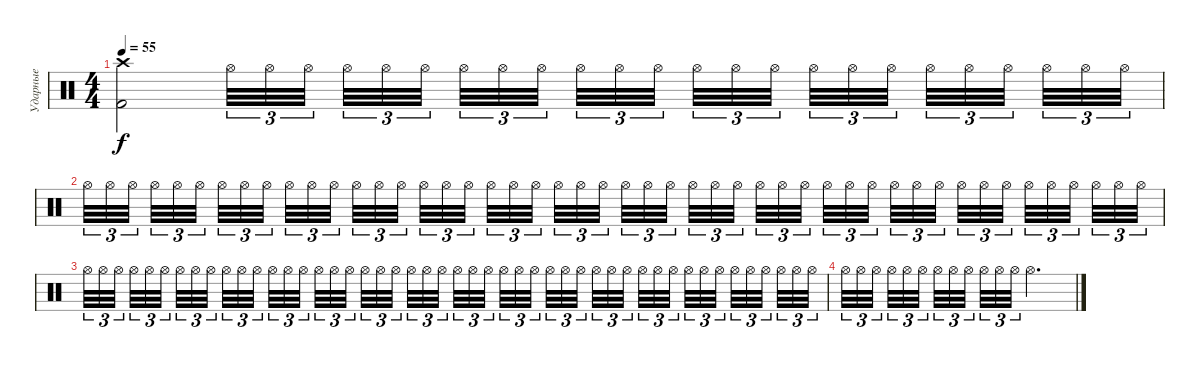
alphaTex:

\track ("Ударные" "Ударные") {instrument percussion}
\staff
\articulation defaults
\ts (4 4)
\tempo 55
\clef neutral
\ks c
("Kick (hit) 2" "Crash high (hit)").2{dy f} "Hi-Hat (open)".32{tu (3 2) volume 2} "Hi-Hat (open)".32{tu (3 2) volume 12} "Hi-Hat (open)".32{tu (3 2) beam splitsecondary} "Hi-Hat (open)".32{tu (3 2)} "Hi-Hat (open)".32{tu (3 2)} "Hi-Hat (open)".32{tu (3 2) beam splitsecondary} "Hi-Hat (open)".32{tu (3 2)} "Hi-Hat (open)".32{tu (3 2)} "Hi-Hat (open)".32{tu (3 2) beam splitsecondary} "Hi-Hat (open)".32{tu (3 2)} "Hi-Hat (open)".32{tu (3 2)} "Hi-Hat (open)".32{tu (3 2)} "Hi-Hat (open)".32{tu (3 2)} "Hi-Hat (open)".32{tu (3 2)} "Hi-Hat (open)".32{tu (3 2) beam splitsecondary} "Hi-Hat (open)".32{tu (3 2)} "Hi-Hat (open)".32{tu (3 2)} "Hi-Hat (open)".32{tu (3 2) beam splitsecondary} "Hi-Hat (open)".32{tu (3 2)} "Hi-Hat (open)".32{tu (3 2)} "Hi-Hat (open)".32{tu (3 2) beam splitsecondary} "Hi-Hat (open)".32{tu (3 2)} "Hi-Hat (open)".32{tu (3 2)} "Hi-Hat (open)".32{tu (3 2)} |
"Hi-Hat (open)".32{tu (3 2)} "Hi-Hat (open)".32{tu (3 2)} "Hi-Hat (open)".32{tu (3 2) beam splitsecondary} "Hi-Hat (open)".32{tu (3 2)} "Hi-Hat (open)".32{tu (3 2)} "Hi-Hat (open)".32{tu (3 2) beam splitsecondary} "Hi-Hat (open)".32{tu (3 2)} "Hi-Hat (open)".32{tu (3 2)} "Hi-Hat (open)".32{tu (3 2) beam splitsecondary} "Hi-Hat (open)".32{tu (3 2)} "Hi-Hat (open)".32{tu (3 2)} "Hi-Hat (open)".32{tu (3 2)} "Hi-Hat (open)".32{tu (3 2)} "Hi-Hat (open)".32{tu (3 2)} "Hi-Hat (open)".32{tu (3 2) beam splitsecondary} "Hi-Hat (open)".32{tu (3 2)} "Hi-Hat (open)".32{tu (3 2)} "Hi-Hat (open)".32{tu (3 2) beam splitsecondary} "Hi-Hat (open)".32{tu (3 2)} "Hi-Hat (open)".32{tu (3 2)} "Hi-Hat (open)".32{tu (3 2) beam splitsecondary} "Hi-Hat (open)".32{tu (3 2)} "Hi-Hat (open)".32{tu (3 2)} "Hi-Hat (open)".32{tu (3 2)} "Hi-Hat (open)".32{tu (3 2)} "Hi-Hat (open)".32{tu (3 2) volume 3} "Hi-Hat (open)".32{tu (3 2) beam splitsecondary} "Hi-Hat (open)".32{tu (3 2)} "Hi-Hat (open)".32{tu (3 2)} "Hi-Hat (open)".32{tu (3 2) beam splitsecondary} "Hi-Hat (open)".32{tu (3 2)} "Hi-Hat (open)".32{tu (3 2)} "Hi-Hat (open)".32{tu (3 2) beam splitsecondary} "Hi-Hat (open)".32{tu (3 2)} "Hi-Hat (open)".32{tu (3 2)} "Hi-Hat (open)".32{tu (3 2)} "Hi-Hat (open)".32{tu (3 2)} "Hi-Hat (open)".32{tu (3 2)} "Hi-Hat (open)".32{tu (3 2) beam splitsecondary} "Hi-Hat (open)".32{tu (3 2)} "Hi-Hat (open)".32{tu (3 2)} "Hi-Hat (open)".32{tu (3 2) beam splitsecondary} "Hi-Hat (open)".32{tu (3 2)} "Hi-Hat (open)".32{tu (3 2)} "Hi-Hat (open)".32{tu (3 2) beam splitsecondary} "Hi-Hat (open)".32{tu (3 2)} "Hi-Hat (open)".32{tu (3 2)} "Hi-Hat (open)".32{tu (3 2)} |
"Hi-Hat (open)".32{tu (3 2)} "Hi-Hat (open)".32{tu (3 2)} "Hi-Hat (open)".32{tu (3 2) beam splitsecondary} "Hi-Hat (open)".32{tu (3 2)} "Hi-Hat (open)".32{tu (3 2)} "Hi-Hat (open)".32{tu (3 2) beam splitsecondary} "Hi-Hat (open)".32{tu (3 2)} "Hi-Hat (open)".32{tu (3 2)} "Hi-Hat (open)".32{tu (3 2) beam splitsecondary} "Hi-Hat (open)".32{tu (3 2)} "Hi-Hat (open)".32{tu (3 2)} "Hi-Hat (open)".32{tu (3 2)} "Hi-Hat (open)".32{tu (3 2) volume 11} "Hi-Hat (open)".32{tu (3 2)} "Hi-Hat (open)".32{tu (3 2) beam splitsecondary} "Hi-Hat (open)".32{tu (3 2)} "Hi-Hat (open)".32{tu (3 2)} "Hi-Hat (open)".32{tu (3 2) beam splitsecondary} "Hi-Hat (open)".32{tu (3 2)} "Hi-Hat (open)".32{tu (3 2)} "Hi-Hat (open)".32{tu (3 2) beam splitsecondary} "Hi-Hat (open)".32{tu (3 2)} "Hi-Hat (open)".32{tu (3 2)} "Hi-Hat (open)".32{tu (3 2)} "Hi-Hat (open)".32{tu (3 2)} "Hi-Hat (open)".32{tu (3 2)} "Hi-Hat (open)".32{tu (3 2) beam splitsecondary} "Hi-Hat (open)".32{tu (3 2)} "Hi-Hat (open)".32{tu (3 2)} "Hi-Hat (open)".32{tu (3 2) beam splitsecondary} "Hi-Hat (open)".32{tu (3 2)} "Hi-Hat (open)".32{tu (3 2)} "Hi-Hat (open)".32{tu (3 2) beam splitsecondary} "Hi-Hat (open)".32{tu (3 2)} "Hi-Hat (open)".32{tu (3 2)} "Hi-Hat (open)".32{tu (3 2)} "Hi-Hat (open)".32{tu (3 2)} "Hi-Hat (open)".32{tu (3 2)} "Hi-Hat (open)".32{tu (3 2) beam splitsecondary} "Hi-Hat (open)".32{tu (3 2)} "Hi-Hat (open)".32{tu (3 2)} "Hi-Hat (open)".32{tu (3 2) beam splitsecondary} "Hi-Hat (open)".32{tu (3 2)} "Hi-Hat (open)".32{tu (3 2)} "Hi-Hat (open)".32{tu (3 2) beam splitsecondary} "Hi-Hat (open)".32{tu (3 2)} "Hi-Hat (open)".32{tu (3 2)} "Hi-Hat (open)".32{tu (3 2)} |
"Hi-Hat (open)".32{tu (3 2)} "Hi-Hat (open)".32{tu (3 2)} "Hi-Hat (open)".32{tu (3 2) beam splitsecondary} "Hi-Hat (open)".32{tu (3 2)} "Hi-Hat (open)".32{tu (3 2)} "Hi-Hat (open)".32{tu (3 2) beam splitsecondary} "Hi-Hat (open)".32{tu (3 2)} "Hi-Hat (open)".32{tu (3 2)} "Hi-Hat (open)".32{tu (3 2) beam splitsecondary} "Hi-Hat (open)".32{tu (3 2)} "Hi-Hat (open)".32{tu (3 2)} "Hi-Hat (open)".32{tu (3 2)} "Hi-Hat (open)".2{d}
